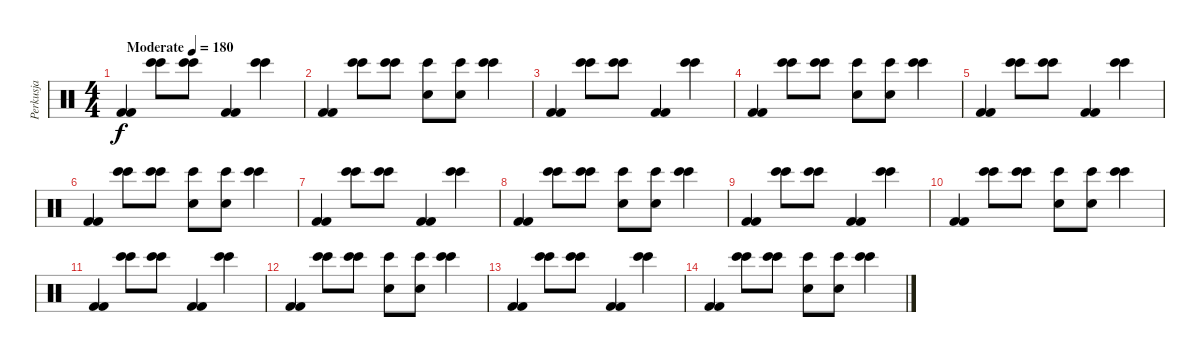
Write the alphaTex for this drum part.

\track ("Perkusja" "Perkusja") {instrument percussion}
\staff {score}
\articulation defaults
\ts (4 4)
\tempo (180 "Moderate")
\clef neutral
\ks c
("Kick (hit) 2" "Kick (hit) 2").4{dy f} ("Bongo High (hit)" "Bongo High (hit)").8 ("Bongo High (hit)" "Bongo High (hit)").8 ("Kick (hit) 2" "Kick (hit) 2").4 ("Bongo High (hit)" "Bongo High (hit)").4 |
("Kick (hit) 2" "Kick (hit) 2").4 ("Bongo High (hit)" "Bongo High (hit)").8 ("Bongo High (hit)" "Bongo High (hit)").8 ("Bongo High (hit)" "Snare (hit) 2").8 ("Bongo High (hit)" "Snare (hit) 2").8 ("Bongo High (hit)" "Bongo High (hit)").4 |
("Kick (hit) 2" "Kick (hit) 2").4 ("Bongo High (hit)" "Bongo High (hit)").8 ("Bongo High (hit)" "Bongo High (hit)").8 ("Kick (hit) 2" "Kick (hit) 2").4 ("Bongo High (hit)" "Bongo High (hit)").4 |
("Kick (hit) 2" "Kick (hit) 2").4 ("Bongo High (hit)" "Bongo High (hit)").8 ("Bongo High (hit)" "Bongo High (hit)").8 ("Bongo High (hit)" "Snare (hit) 2").8 ("Bongo High (hit)" "Snare (hit) 2").8 ("Bongo High (hit)" "Bongo High (hit)").4 |
("Kick (hit) 2" "Kick (hit) 2").4 ("Bongo High (hit)" "Bongo High (hit)").8 ("Bongo High (hit)" "Bongo High (hit)").8 ("Kick (hit) 2" "Kick (hit) 2").4 ("Bongo High (hit)" "Bongo High (hit)").4 |
("Kick (hit) 2" "Kick (hit) 2").4 ("Bongo High (hit)" "Bongo High (hit)").8 ("Bongo High (hit)" "Bongo High (hit)").8 ("Bongo High (hit)" "Snare (hit) 2").8 ("Bongo High (hit)" "Snare (hit) 2").8 ("Bongo High (hit)" "Bongo High (hit)").4 |
("Kick (hit) 2" "Kick (hit) 2").4 ("Bongo High (hit)" "Bongo High (hit)").8 ("Bongo High (hit)" "Bongo High (hit)").8 ("Kick (hit) 2" "Kick (hit) 2").4 ("Bongo High (hit)" "Bongo High (hit)").4 |
("Kick (hit) 2" "Kick (hit) 2").4 ("Bongo High (hit)" "Bongo High (hit)").8 ("Bongo High (hit)" "Bongo High (hit)").8 ("Bongo High (hit)" "Snare (hit) 2").8 ("Bongo High (hit)" "Snare (hit) 2").8 ("Bongo High (hit)" "Bongo High (hit)").4 |
("Kick (hit) 2" "Kick (hit) 2").4 ("Bongo High (hit)" "Bongo High (hit)").8 ("Bongo High (hit)" "Bongo High (hit)").8 ("Kick (hit) 2" "Kick (hit) 2").4 ("Bongo High (hit)" "Bongo High (hit)").4 |
("Kick (hit) 2" "Kick (hit) 2").4 ("Bongo High (hit)" "Bongo High (hit)").8 ("Bongo High (hit)" "Bongo High (hit)").8 ("Bongo High (hit)" "Snare (hit) 2").8 ("Bongo High (hit)" "Snare (hit) 2").8 ("Bongo High (hit)" "Bongo High (hit)").4 |
("Kick (hit) 2" "Kick (hit) 2").4 ("Bongo High (hit)" "Bongo High (hit)").8 ("Bongo High (hit)" "Bongo High (hit)").8 ("Kick (hit) 2" "Kick (hit) 2").4 ("Bongo High (hit)" "Bongo High (hit)").4 |
("Kick (hit) 2" "Kick (hit) 2").4 ("Bongo High (hit)" "Bongo High (hit)").8 ("Bongo High (hit)" "Bongo High (hit)").8 ("Bongo High (hit)" "Snare (hit) 2").8 ("Bongo High (hit)" "Snare (hit) 2").8 ("Bongo High (hit)" "Bongo High (hit)").4 |
("Kick (hit) 2" "Kick (hit) 2").4 ("Bongo High (hit)" "Bongo High (hit)").8 ("Bongo High (hit)" "Bongo High (hit)").8 ("Kick (hit) 2" "Kick (hit) 2").4 ("Bongo High (hit)" "Bongo High (hit)").4 |
("Kick (hit) 2" "Kick (hit) 2").4 ("Bongo High (hit)" "Bongo High (hit)").8 ("Bongo High (hit)" "Bongo High (hit)").8 ("Bongo High (hit)" "Snare (hit) 2").8 ("Bongo High (hit)" "Snare (hit) 2").8 ("Bongo High (hit)" "Bongo High (hit)").4
